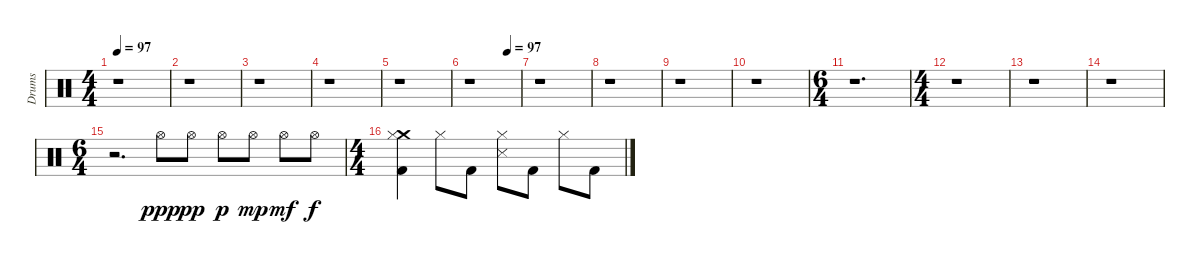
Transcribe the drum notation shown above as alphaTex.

\track ("Drums" "Drums") {instrument percussion}
\staff {score}
\articulation defaults
\ts (4 4)
\tempo 97
\tempo 80
\tempo 97
\clef neutral
\ks c
r.1{dy ppp} |
r.1 |
r.1 |
r.1 |
r.1 |
\tempo (97 0.75)
r.1 |
r.1 |
r.1 |
r.1 |
r.1 |
\ts (6 4)
r.1{d} |
\ts (4 4)
r.1 |
r.1 |
r.1 |
\ts (6 4)
r.2{d} "Hi-Hat (open)".8 "Hi-Hat (open)".8{dy pp} "Hi-Hat (open)".8{dy p} "Hi-Hat (open)".8{dy mp} "Hi-Hat (open)".8{dy mf} "Hi-Hat (open)".8{dy f} |
\ts (4 4)
("Crash medium (hit)" "Hi-Hat (closed)" "Kick (hit) 2").4 "Hi-Hat (closed)".8 "Kick (hit) 2".8 ("Hi-Hat (closed)" "Snare (side stick) 3").8 "Kick (hit) 2".8 "Hi-Hat (closed)".8 "Kick (hit) 2".8
